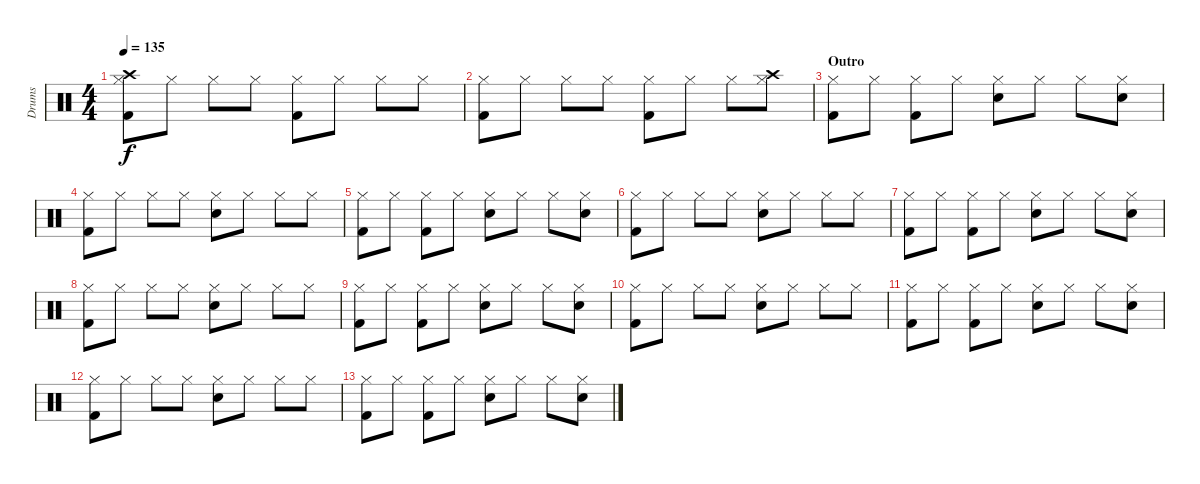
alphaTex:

\track ("Drums" "Drums") {instrument percussion}
\staff {score}
\articulation defaults
\ts (4 4)
\tempo 135
\clef neutral
\ks c
("Kick (hit) 2" "Hi-Hat (closed)" "Crash high (hit)").8{dy f} "Hi-Hat (closed)".8 "Hi-Hat (closed)".8 "Hi-Hat (closed)".8 ("Kick (hit) 2" "Hi-Hat (closed)").8 "Hi-Hat (closed)".8 "Hi-Hat (closed)".8 "Hi-Hat (closed)".8 |
("Kick (hit) 2" "Hi-Hat (closed)").8 "Hi-Hat (closed)".8 "Hi-Hat (closed)".8 "Hi-Hat (closed)".8 ("Kick (hit) 2" "Hi-Hat (closed)").8 "Hi-Hat (closed)".8 "Hi-Hat (closed)".8 ("Hi-Hat (closed)" "Crash high (hit)").8 |
\section ("" "Outro")
("Kick (hit) 2" "Hi-Hat (closed)").8 "Hi-Hat (closed)".8 ("Kick (hit) 2" "Hi-Hat (closed)").8 "Hi-Hat (closed)".8 ("Snare (hit) 2" "Hi-Hat (closed)").8 "Hi-Hat (closed)".8 "Hi-Hat (closed)".8 ("Snare (hit) 2" "Hi-Hat (closed)").8 |
("Kick (hit) 2" "Hi-Hat (closed)").8 "Hi-Hat (closed)".8 "Hi-Hat (closed)".8 "Hi-Hat (closed)".8 ("Snare (hit) 2" "Hi-Hat (closed)").8 "Hi-Hat (closed)".8 "Hi-Hat (closed)".8 "Hi-Hat (closed)".8 |
("Kick (hit) 2" "Hi-Hat (closed)").8 "Hi-Hat (closed)".8 ("Kick (hit) 2" "Hi-Hat (closed)").8 "Hi-Hat (closed)".8 ("Snare (hit) 2" "Hi-Hat (closed)").8 "Hi-Hat (closed)".8 "Hi-Hat (closed)".8 ("Snare (hit) 2" "Hi-Hat (closed)").8 |
("Kick (hit) 2" "Hi-Hat (closed)").8 "Hi-Hat (closed)".8 "Hi-Hat (closed)".8 "Hi-Hat (closed)".8 ("Snare (hit) 2" "Hi-Hat (closed)").8 "Hi-Hat (closed)".8 "Hi-Hat (closed)".8 "Hi-Hat (closed)".8 |
("Kick (hit) 2" "Hi-Hat (closed)").8 "Hi-Hat (closed)".8 ("Kick (hit) 2" "Hi-Hat (closed)").8 "Hi-Hat (closed)".8 ("Snare (hit) 2" "Hi-Hat (closed)").8 "Hi-Hat (closed)".8 "Hi-Hat (closed)".8 ("Snare (hit) 2" "Hi-Hat (closed)").8 |
("Kick (hit) 2" "Hi-Hat (closed)").8 "Hi-Hat (closed)".8 "Hi-Hat (closed)".8 "Hi-Hat (closed)".8 ("Snare (hit) 2" "Hi-Hat (closed)").8 "Hi-Hat (closed)".8 "Hi-Hat (closed)".8 "Hi-Hat (closed)".8 |
("Kick (hit) 2" "Hi-Hat (closed)").8 "Hi-Hat (closed)".8 ("Kick (hit) 2" "Hi-Hat (closed)").8 "Hi-Hat (closed)".8 ("Snare (hit) 2" "Hi-Hat (closed)").8 "Hi-Hat (closed)".8 "Hi-Hat (closed)".8 ("Snare (hit) 2" "Hi-Hat (closed)").8 |
("Kick (hit) 2" "Hi-Hat (closed)").8 "Hi-Hat (closed)".8 "Hi-Hat (closed)".8 "Hi-Hat (closed)".8 ("Snare (hit) 2" "Hi-Hat (closed)").8 "Hi-Hat (closed)".8 "Hi-Hat (closed)".8 "Hi-Hat (closed)".8 |
("Kick (hit) 2" "Hi-Hat (closed)").8{volume 12} "Hi-Hat (closed)".8 ("Kick (hit) 2" "Hi-Hat (closed)").8{volume 11} "Hi-Hat (closed)".8 ("Snare (hit) 2" "Hi-Hat (closed)").8{volume 10} "Hi-Hat (closed)".8 "Hi-Hat (closed)".8{volume 9} ("Snare (hit) 2" "Hi-Hat (closed)").8 |
("Kick (hit) 2" "Hi-Hat (closed)").8{volume 8} "Hi-Hat (closed)".8 "Hi-Hat (closed)".8{volume 7} "Hi-Hat (closed)".8 ("Snare (hit) 2" "Hi-Hat (closed)").8{volume 6} "Hi-Hat (closed)".8 "Hi-Hat (closed)".8{volume 5} "Hi-Hat (closed)".8 |
("Kick (hit) 2" "Hi-Hat (closed)").8{volume 4} "Hi-Hat (closed)".8 ("Kick (hit) 2" "Hi-Hat (closed)").8{volume 3} "Hi-Hat (closed)".8 ("Snare (hit) 2" "Hi-Hat (closed)").8{volume 2} "Hi-Hat (closed)".8 "Hi-Hat (closed)".8{volume 1} ("Snare (hit) 2" "Hi-Hat (closed)").8
